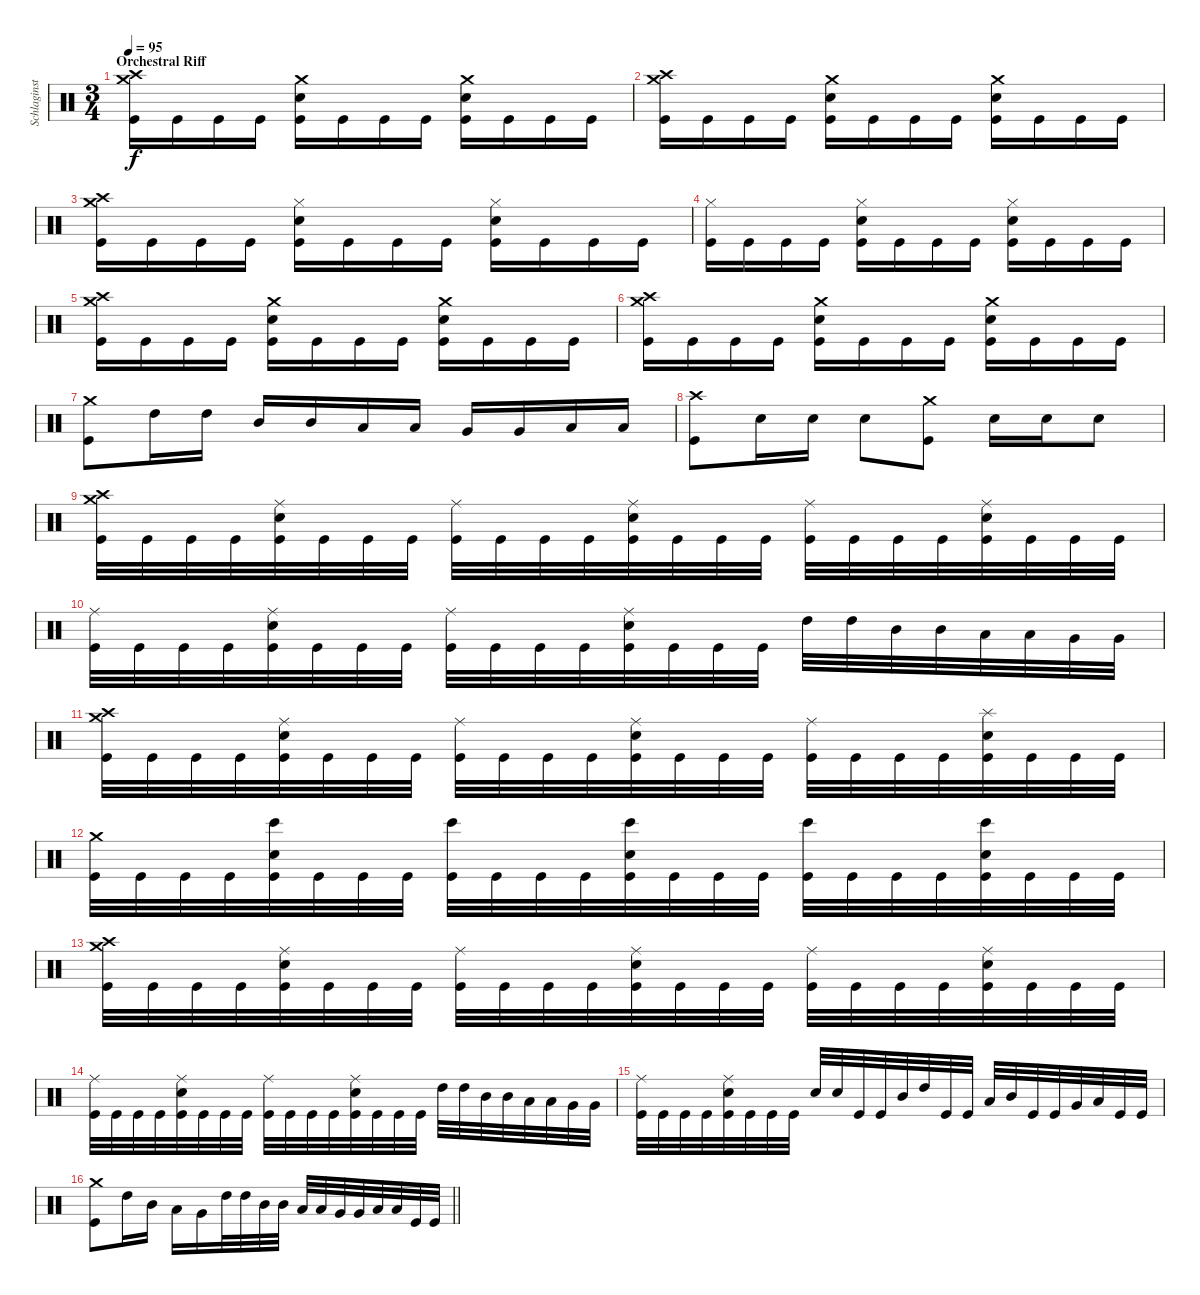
\track ("Schlaginstrumente - Auswahl" "Schlaginst") {instrument percussion}
\staff {score}
\articulation defaults
\ts (3 4)
\section ("" "Orchestral Riff")
\tempo 95
\clef neutral
\ks c
("Crash medium (hit)" "Crash high (hit)" "Kick (hit)").16{dy f} "Kick (hit)".16 "Kick (hit)".16 "Kick (hit)".16 ("Crash medium (hit)" "Snare (hit) 2" "Kick (hit)").16 "Kick (hit)".16 "Kick (hit)".16 "Kick (hit)".16 ("Crash medium (hit)" "Snare (hit) 2" "Kick (hit)").16 "Kick (hit)".16 "Kick (hit)".16 "Kick (hit)".16 |
("Crash medium (hit)" "Crash high (hit)" "Kick (hit)").16 "Kick (hit)".16 "Kick (hit)".16 "Kick (hit)".16 ("Crash medium (hit)" "Snare (hit) 2" "Kick (hit)").16 "Kick (hit)".16 "Kick (hit)".16 "Kick (hit)".16 ("Crash medium (hit)" "Snare (hit) 2" "Kick (hit)").16 "Kick (hit)".16 "Kick (hit)".16 "Kick (hit)".16 |
("Crash medium (hit)" "Crash high (hit)" "Kick (hit)").16 "Kick (hit)".16 "Kick (hit)".16 "Kick (hit)".16 ("Hi-Hat (closed)" "Snare (hit) 2" "Kick (hit)").16 "Kick (hit)".16 "Kick (hit)".16 "Kick (hit)".16 ("Hi-Hat (closed)" "Snare (hit) 2" "Kick (hit)").16 "Kick (hit)".16 "Kick (hit)".16 "Kick (hit)".16 |
("Hi-Hat (closed)" "Kick (hit)").16 "Kick (hit)".16 "Kick (hit)".16 "Kick (hit)".16 ("Hi-Hat (closed)" "Snare (hit) 2" "Kick (hit)").16 "Kick (hit)".16 "Kick (hit)".16 "Kick (hit)".16 ("Hi-Hat (closed)" "Snare (hit) 2" "Kick (hit)").16 "Kick (hit)".16 "Kick (hit)".16 "Kick (hit)".16 |
("Crash medium (hit)" "Crash high (hit)" "Kick (hit)").16 "Kick (hit)".16 "Kick (hit)".16 "Kick (hit)".16 ("Crash medium (hit)" "Snare (hit) 2" "Kick (hit)").16 "Kick (hit)".16 "Kick (hit)".16 "Kick (hit)".16 ("Crash medium (hit)" "Snare (hit) 2" "Kick (hit)").16 "Kick (hit)".16 "Kick (hit)".16 "Kick (hit)".16 |
("Crash medium (hit)" "Crash high (hit)" "Kick (hit)").16 "Kick (hit)".16 "Kick (hit)".16 "Kick (hit)".16 ("Crash medium (hit)" "Snare (hit) 2" "Kick (hit)").16 "Kick (hit)".16 "Kick (hit)".16 "Kick (hit)".16 ("Crash medium (hit)" "Snare (hit) 2" "Kick (hit)").16 "Kick (hit)".16 "Kick (hit)".16 "Kick (hit)".16 |
("Kick (hit)" "Crash medium (hit)").8 "High Tom (hit)".16 "High Tom (hit)".16 "Mid Tom (hit)".16 "Mid Tom (hit)".16 "Low Tom (hit)".16 "Low Tom (hit)".16 "Very Low Tom (hit)".16 "Very Low Tom (hit)".16 "Low Floor Tom (hit)".16 "Low Floor Tom (hit)".16 |
("Crash high (hit)" "Kick (hit)").8 "Snare (hit) 2".16 "Snare (hit) 2".16 "Snare (hit) 2".8 ("Kick (hit)" "Crash medium (hit)").8 "Snare (hit) 2".16 "Snare (hit) 2".16 "Snare (hit) 2".8 |
("Kick (hit)" "Crash high (hit)" "Crash medium (hit)").32 "Kick (hit)".32 "Kick (hit)".32 "Kick (hit)".32 ("Kick (hit)" "Snare (hit) 2" "Ride (middle)").32 "Kick (hit)".32 "Kick (hit)".32 "Kick (hit)".32 ("Kick (hit)" "Ride (middle)").32 "Kick (hit)".32 "Kick (hit)".32 "Kick (hit)".32 ("Kick (hit)" "Snare (hit) 2" "Ride (middle)").32 "Kick (hit)".32 "Kick (hit)".32 "Kick (hit)".32 ("Kick (hit)" "Ride (middle)").32 "Kick (hit)".32 "Kick (hit)".32 "Kick (hit)".32 ("Kick (hit)" "Snare (hit) 2" "Ride (middle)").32 "Kick (hit)".32 "Kick (hit)".32 "Kick (hit)".32 |
("Kick (hit)" "Ride (middle)").32 "Kick (hit)".32 "Kick (hit)".32 "Kick (hit)".32 ("Kick (hit)" "Snare (hit) 2" "Ride (middle)").32 "Kick (hit)".32 "Kick (hit)".32 "Kick (hit)".32 ("Kick (hit)" "Ride (middle)").32 "Kick (hit)".32 "Kick (hit)".32 "Kick (hit)".32 ("Kick (hit)" "Snare (hit) 2" "Ride (middle)").32 "Kick (hit)".32 "Kick (hit)".32 "Kick (hit)".32 "High Tom (hit)".32 "High Tom (hit)".32 "Mid Tom (hit)".32 "Mid Tom (hit)".32 "Low Tom (hit)".32 "Low Tom (hit)".32 "Very Low Tom (hit)".32 "Very Low Tom (hit)".32 |
("Kick (hit)" "Crash high (hit)" "Crash medium (hit)").32 "Kick (hit)".32 "Kick (hit)".32 "Kick (hit)".32 ("Kick (hit)" "Snare (hit) 2" "Ride (middle)").32 "Kick (hit)".32 "Kick (hit)".32 "Kick (hit)".32 ("Kick (hit)" "Ride (middle)").32 "Kick (hit)".32 "Kick (hit)".32 "Kick (hit)".32 ("Kick (hit)" "Snare (hit) 2" "Ride (middle)").32 "Kick (hit)".32 "Kick (hit)".32 "Kick (hit)".32 ("Kick (hit)" "Ride (middle)").32 "Kick (hit)".32 "Kick (hit)".32 "Kick (hit)".32 ("Kick (hit)" "Snare (hit) 2" "Splash (hit)").32 "Kick (hit)".32 "Kick (hit)".32 "Kick (hit)".32 |
("Kick (hit)" "Crash medium (hit)").32 "Kick (hit)".32 "Kick (hit)".32 "Kick (hit)".32 ("Kick (hit)" "Snare (hit) 2" "Bongo High (hit)").32 "Kick (hit)".32 "Kick (hit)".32 "Kick (hit)".32 ("Kick (hit)" "Bongo High (hit)").32 "Kick (hit)".32 "Kick (hit)".32 "Kick (hit)".32 ("Kick (hit)" "Snare (hit) 2" "Bongo High (hit)").32 "Kick (hit)".32 "Kick (hit)".32 "Kick (hit)".32 ("Kick (hit)" "Bongo High (hit)").32 "Kick (hit)".32 "Kick (hit)".32 "Kick (hit)".32 ("Kick (hit)" "Snare (hit) 2" "Bongo High (hit)").32 "Kick (hit)".32 "Kick (hit)".32 "Kick (hit)".32 |
("Kick (hit)" "Crash high (hit)" "Crash medium (hit)").32 "Kick (hit)".32 "Kick (hit)".32 "Kick (hit)".32 ("Kick (hit)" "Snare (hit) 2" "Ride (middle)").32 "Kick (hit)".32 "Kick (hit)".32 "Kick (hit)".32 ("Kick (hit)" "Ride (middle)").32 "Kick (hit)".32 "Kick (hit)".32 "Kick (hit)".32 ("Kick (hit)" "Snare (hit) 2" "Ride (middle)").32 "Kick (hit)".32 "Kick (hit)".32 "Kick (hit)".32 ("Kick (hit)" "Ride (middle)").32 "Kick (hit)".32 "Kick (hit)".32 "Kick (hit)".32 ("Kick (hit)" "Snare (hit) 2" "Ride (middle)").32 "Kick (hit)".32 "Kick (hit)".32 "Kick (hit)".32 |
("Kick (hit)" "Ride (middle)").32 "Kick (hit)".32 "Kick (hit)".32 "Kick (hit)".32 ("Kick (hit)" "Snare (hit) 2" "Ride (middle)").32 "Kick (hit)".32 "Kick (hit)".32 "Kick (hit)".32 ("Kick (hit)" "Ride (middle)").32 "Kick (hit)".32 "Kick (hit)".32 "Kick (hit)".32 ("Kick (hit)" "Snare (hit) 2" "Ride (middle)").32 "Kick (hit)".32 "Kick (hit)".32 "Kick (hit)".32 "High Tom (hit)".32 "High Tom (hit)".32 "Mid Tom (hit)".32 "Mid Tom (hit)".32 "Low Tom (hit)".32 "Low Tom (hit)".32 "Very Low Tom (hit)".32 "Very Low Tom (hit)".32 |
("Kick (hit)" "Ride (middle)").32 "Kick (hit)".32 "Kick (hit)".32 "Kick (hit)".32 ("Kick (hit)" "Snare (hit) 2" "Ride (middle)").32 "Kick (hit)".32 "Kick (hit)".32 "Kick (hit)".32 "Snare (hit) 2".32 "Snare (hit) 2".32 "Kick (hit)".32 "Kick (hit)".32 "Mid Tom (hit)".32 "High Tom (hit)".32 "Kick (hit)".32 "Kick (hit)".32 "Low Tom (hit)".32 "Mid Tom (hit)".32 "Kick (hit)".32 "Kick (hit)".32 "Very Low Tom (hit)".32 "Low Tom (hit)".32 "Kick (hit)".32 "Kick (hit)".32 |
\barLineRight lightlight
("Kick (hit)" "Crash medium (hit)").8 "High Tom (hit)".16 "Mid Tom (hit)".16 "Low Tom (hit)".16 "Very Low Tom (hit)".16 "High Tom (hit)".32 "High Tom (hit)".32 "Mid Tom (hit)".32 "Mid Tom (hit)".32 "Low Tom (hit)".32 "Low Tom (hit)".32 "Very Low Tom (hit)".32 "Very Low Tom (hit)".32 "Low Floor Tom (hit)".32 "Low Floor Tom (hit)".32 "Kick (hit)".32 "Kick (hit)".32
